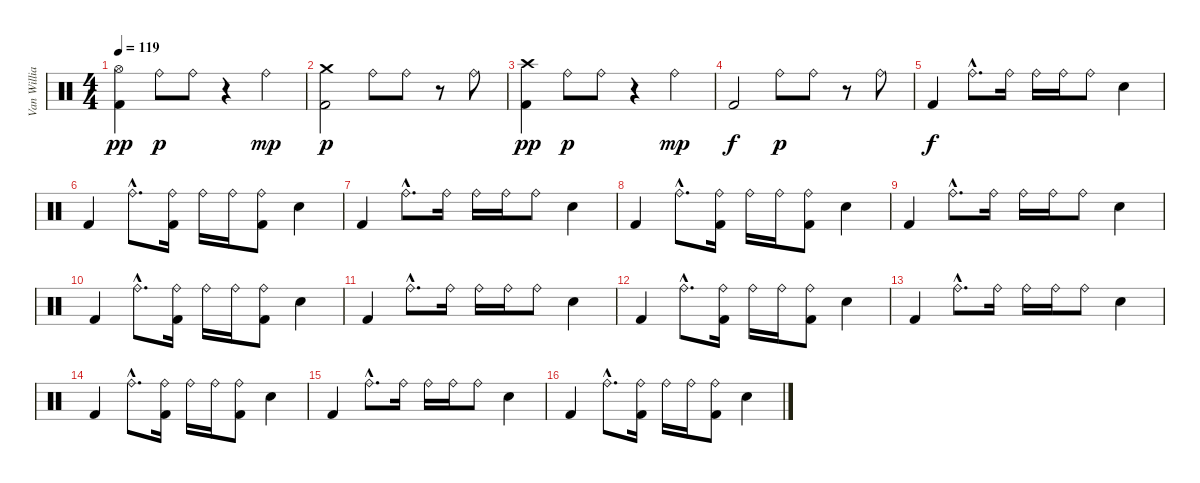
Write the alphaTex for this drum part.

\track ("Van Williams" "Van Willia") {instrument percussion}
\staff {score}
\articulation defaults
\ts (4 4)
\tempo 119
\clef neutral
\ks c
("Hi-Hat (open)" "Kick (hit) 2").4{dy pp} "Ride (bell)".8{dy p} "Ride (bell)".8 r.4 "Ride (bell)".4{dy mp} |
("Crash medium (hit)" "Kick (hit) 2").2{dy p} "Ride (bell)".8 "Ride (bell)".8 r.8 "Ride (bell)".8 |
("Crash high (hit)" "Kick (hit) 2").4{dy pp} "Ride (bell)".8{dy p} "Ride (bell)".8 r.4 "Ride (bell)".4{dy mp} |
"Kick (hit) 2".2{dy f} "Ride (bell)".8{dy p} "Ride (bell)".8 r.8 "Ride (bell)".8 |
"Kick (hit) 2".4{dy f} "Ride (bell)"{hac}.8{d} "Ride (bell)".16 "Ride (bell)".16 "Ride (bell)".16 "Ride (bell)".8 "Electric Snare (hit)".4 |
"Kick (hit) 2".4 "Ride (bell)"{hac}.8{d} ("Ride (bell)" "Kick (hit) 2").16 "Ride (bell)".16 "Ride (bell)".16 ("Ride (bell)" "Kick (hit) 2").8 "Electric Snare (hit)".4 |
"Kick (hit) 2".4 "Ride (bell)"{hac}.8{d} "Ride (bell)".16 "Ride (bell)".16 "Ride (bell)".16 "Ride (bell)".8 "Electric Snare (hit)".4 |
"Kick (hit) 2".4 "Ride (bell)"{hac}.8{d} ("Ride (bell)" "Kick (hit) 2").16 "Ride (bell)".16 "Ride (bell)".16 ("Ride (bell)" "Kick (hit) 2").8 "Electric Snare (hit)".4 |
"Kick (hit) 2".4 "Ride (bell)"{hac}.8{d} "Ride (bell)".16 "Ride (bell)".16 "Ride (bell)".16 "Ride (bell)".8 "Electric Snare (hit)".4 |
"Kick (hit) 2".4 "Ride (bell)"{hac}.8{d} ("Ride (bell)" "Kick (hit) 2").16 "Ride (bell)".16 "Ride (bell)".16 ("Ride (bell)" "Kick (hit) 2").8 "Electric Snare (hit)".4 |
"Kick (hit) 2".4 "Ride (bell)"{hac}.8{d} "Ride (bell)".16 "Ride (bell)".16 "Ride (bell)".16 "Ride (bell)".8 "Electric Snare (hit)".4 |
"Kick (hit) 2".4 "Ride (bell)"{hac}.8{d} ("Ride (bell)" "Kick (hit) 2").16 "Ride (bell)".16 "Ride (bell)".16 ("Ride (bell)" "Kick (hit) 2").8 "Electric Snare (hit)".4 |
"Kick (hit) 2".4 "Ride (bell)"{hac}.8{d} "Ride (bell)".16 "Ride (bell)".16 "Ride (bell)".16 "Ride (bell)".8 "Electric Snare (hit)".4 |
"Kick (hit) 2".4 "Ride (bell)"{hac}.8{d} ("Ride (bell)" "Kick (hit) 2").16 "Ride (bell)".16 "Ride (bell)".16 ("Ride (bell)" "Kick (hit) 2").8 "Electric Snare (hit)".4 |
"Kick (hit) 2".4 "Ride (bell)"{hac}.8{d} "Ride (bell)".16 "Ride (bell)".16 "Ride (bell)".16 "Ride (bell)".8 "Electric Snare (hit)".4 |
"Kick (hit) 2".4 "Ride (bell)"{hac}.8{d} ("Ride (bell)" "Kick (hit) 2").16 "Ride (bell)".16 "Ride (bell)".16 ("Ride (bell)" "Kick (hit) 2").8 "Electric Snare (hit)".4
